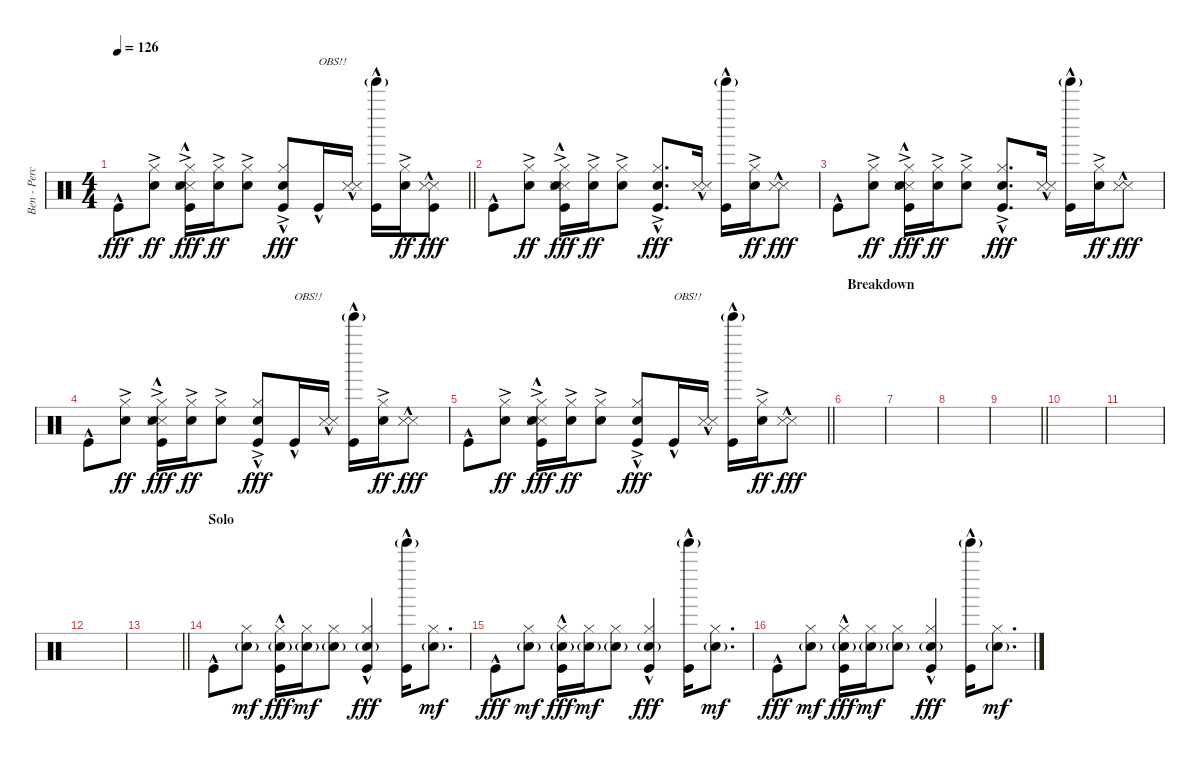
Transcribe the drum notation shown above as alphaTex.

\track ("Ben - Percussion" "Ben - Perc") {instrument percussion}
\staff {score}
\articulation defaults
\ts (4 4)
\tempo 126
\clef neutral
\barLineRight lightlight
\ks c "Kick (hit)"{hac}.8{dy fff}
("Hi-Hat (closed)"{ac} "Snare (hit) 2").8{dy ff} ("Hi-Hat (closed)"{ac} "Metronome (hit)"{hac} "Snare (side stick) 3"{hac} "Snare (hit) 2" "Kick (hit)"{hac}).16{dy fff} ("Hi-Hat (closed)"{ac} "Snare (hit) 2").16{dy ff} ("Hi-Hat (closed)"{ac} "Snare (hit) 2").8 ("Hi-Hat (closed)"{ac} "Snare (hit) 2" "Kick (hit)"{hac}).8{dy fff} "Kick (hit)"{hac}.16{txt "OBS!!"} ("Metronome (hit)"{hac} "Snare (side stick) 3"{hac}).16 ("Tinkle Bell (hit)"{g} "Kick (hit)"{hac}).16 ("Hi-Hat (closed)"{ac} "Snare (hit) 2").16{dy ff} ("Metronome (hit)"{hac} "Snare (side stick) 3"{hac} "Kick (hit)"{hac}).8{dy fff} |
"Kick (hit)"{hac}.8 ("Hi-Hat (closed)"{ac} "Snare (hit) 2").8{dy ff} ("Hi-Hat (closed)"{ac} "Metronome (hit)"{hac} "Snare (side stick) 3"{hac} "Snare (hit) 2" "Kick (hit)"{hac}).16{dy fff} ("Hi-Hat (closed)"{ac} "Snare (hit) 2").16{dy ff} ("Hi-Hat (closed)"{ac} "Snare (hit) 2").8 ("Hi-Hat (closed)"{ac} "Snare (hit) 2" "Kick (hit)"{hac}).8{d dy fff} ("Metronome (hit)"{hac} "Snare (side stick) 3"{hac}).16 ("Tinkle Bell (hit)"{g} "Kick (hit)"{hac}).16 ("Hi-Hat (closed)"{ac} "Snare (hit) 2").16{dy ff} ("Metronome (hit)"{hac} "Snare (side stick) 3"{hac}).8{dy fff} |
"Kick (hit)"{hac}.8 ("Hi-Hat (closed)"{ac} "Snare (hit) 2").8{dy ff} ("Hi-Hat (closed)"{ac} "Metronome (hit)"{hac} "Snare (side stick) 3"{hac} "Snare (hit) 2" "Kick (hit)"{hac}).16{dy fff} ("Hi-Hat (closed)"{ac} "Snare (hit) 2").16{dy ff} ("Hi-Hat (closed)"{ac} "Snare (hit) 2").8 ("Hi-Hat (closed)"{ac} "Snare (hit) 2" "Kick (hit)"{hac}).8{d dy fff} ("Metronome (hit)"{hac} "Snare (side stick) 3"{hac}).16 ("Tinkle Bell (hit)"{g} "Kick (hit)"{hac}).16 ("Hi-Hat (closed)"{ac} "Snare (hit) 2").16{dy ff} ("Metronome (hit)"{hac} "Snare (side stick) 3"{hac}).8{dy fff} |
"Kick (hit)"{hac}.8 ("Hi-Hat (closed)"{ac} "Snare (hit) 2").8{dy ff} ("Hi-Hat (closed)"{ac} "Metronome (hit)"{hac} "Snare (side stick) 3"{hac} "Snare (hit) 2" "Kick (hit)"{hac}).16{dy fff} ("Hi-Hat (closed)"{ac} "Snare (hit) 2").16{dy ff} ("Hi-Hat (closed)"{ac} "Snare (hit) 2").8 ("Hi-Hat (closed)"{ac} "Snare (hit) 2" "Kick (hit)"{hac}).8{dy fff} "Kick (hit)"{hac}.16{txt "OBS!!"} ("Metronome (hit)"{hac} "Snare (side stick) 3"{hac}).16 ("Tinkle Bell (hit)"{g} "Kick (hit)"{hac}).16 ("Hi-Hat (closed)"{ac} "Snare (hit) 2").16{dy ff} ("Metronome (hit)"{hac} "Snare (side stick) 3"{hac}).8{dy fff} |
\barLineRight lightlight "Kick (hit)"{hac}.8
("Hi-Hat (closed)"{ac} "Snare (hit) 2").8{dy ff} ("Hi-Hat (closed)"{ac} "Metronome (hit)"{hac} "Snare (side stick) 3"{hac} "Snare (hit) 2" "Kick (hit)"{hac}).16{dy fff} ("Hi-Hat (closed)"{ac} "Snare (hit) 2").16{dy ff} ("Hi-Hat (closed)"{ac} "Snare (hit) 2").8 ("Hi-Hat (closed)"{ac} "Snare (hit) 2" "Kick (hit)"{hac}).8{dy fff} "Kick (hit)"{hac}.16{txt "OBS!!"} ("Metronome (hit)"{hac} "Snare (side stick) 3"{hac}).16 ("Tinkle Bell (hit)"{g} "Kick (hit)"{hac}).16 ("Hi-Hat (closed)"{ac} "Snare (hit) 2").16{dy ff} ("Metronome (hit)"{hac} "Snare (side stick) 3"{hac}).8{dy fff} |
\section ("" "Breakdown")
|
|
|
\barLineRight lightlight
|
|
|
|
\barLineRight lightlight
|
\section ("" "Solo")
"Kick (hit)"{hac}.8 ("Hi-Hat (closed)" "Snare (hit) 2"{g}).8{dy mf} ("Hi-Hat (closed)" "Snare (hit) 2"{g} "Kick (hit)"{hac}).16{dy fff} ("Hi-Hat (closed)" "Snare (hit) 2"{g}).16{dy mf} ("Hi-Hat (closed)" "Snare (hit) 2"{g}).8 ("Hi-Hat (closed)" "Snare (hit) 2"{g} "Kick (hit)"{hac}).4{dy fff} ("Tinkle Bell (hit)"{g} "Kick (hit)"{hac}).16 ("Hi-Hat (closed)" "Snare (hit) 2"{g}).8{d dy mf} |
"Kick (hit)"{hac}.8{dy fff} ("Hi-Hat (closed)" "Snare (hit) 2"{g}).8{dy mf} ("Hi-Hat (closed)" "Snare (hit) 2"{g} "Kick (hit)"{hac}).16{dy fff} ("Hi-Hat (closed)" "Snare (hit) 2"{g}).16{dy mf} ("Hi-Hat (closed)" "Snare (hit) 2"{g}).8 ("Hi-Hat (closed)" "Snare (hit) 2"{g} "Kick (hit)"{hac}).4{dy fff} ("Tinkle Bell (hit)"{g} "Kick (hit)"{hac}).16 ("Hi-Hat (closed)" "Snare (hit) 2"{g}).8{d dy mf} |
"Kick (hit)"{hac}.8{dy fff} ("Hi-Hat (closed)" "Snare (hit) 2"{g}).8{dy mf} ("Hi-Hat (closed)" "Snare (hit) 2"{g} "Kick (hit)"{hac}).16{dy fff} ("Hi-Hat (closed)" "Snare (hit) 2"{g}).16{dy mf} ("Hi-Hat (closed)" "Snare (hit) 2"{g}).8 ("Hi-Hat (closed)" "Snare (hit) 2"{g} "Kick (hit)"{hac}).4{dy fff} ("Tinkle Bell (hit)"{g} "Kick (hit)"{hac}).16 ("Hi-Hat (closed)" "Snare (hit) 2"{g}).8{d dy mf}
